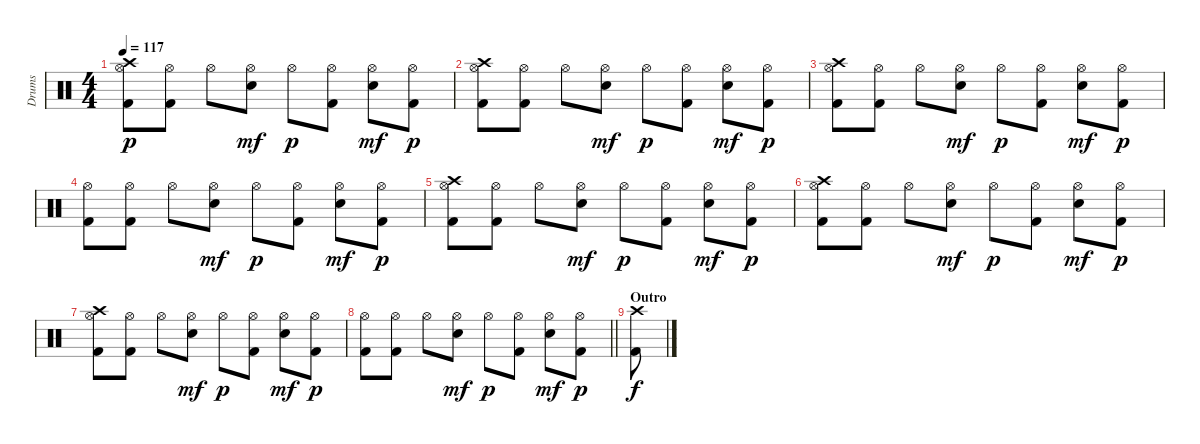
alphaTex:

\track ("Drums" "Drums") {instrument percussion}
\staff {score}
\articulation defaults
\ts (4 4)
\tempo 117
\clef neutral
\ks c
("Crash high (hit)" "Hi-Hat (open)" "Kick (hit) 2").8{dy p} ("Hi-Hat (open)" "Kick (hit) 2").8 "Hi-Hat (open)".8 ("Hi-Hat (open)" "Snare (hit) 2").8{dy mf} "Hi-Hat (open)".8{dy p} ("Hi-Hat (open)" "Kick (hit) 2").8 ("Hi-Hat (open)" "Snare (hit) 2").8{dy mf} ("Hi-Hat (open)" "Kick (hit) 2").8{dy p} |
("Crash high (hit)" "Hi-Hat (open)" "Kick (hit) 2").8 ("Hi-Hat (open)" "Kick (hit) 2").8 "Hi-Hat (open)".8 ("Hi-Hat (open)" "Snare (hit) 2").8{dy mf} "Hi-Hat (open)".8{dy p} ("Hi-Hat (open)" "Kick (hit) 2").8 ("Hi-Hat (open)" "Snare (hit) 2").8{dy mf} ("Hi-Hat (open)" "Kick (hit) 2").8{dy p} |
("Crash high (hit)" "Hi-Hat (open)" "Kick (hit) 2").8 ("Hi-Hat (open)" "Kick (hit) 2").8 "Hi-Hat (open)".8 ("Hi-Hat (open)" "Snare (hit) 2").8{dy mf} "Hi-Hat (open)".8{dy p} ("Hi-Hat (open)" "Kick (hit) 2").8 ("Hi-Hat (open)" "Snare (hit) 2").8{dy mf} ("Hi-Hat (open)" "Kick (hit) 2").8{dy p} |
("Hi-Hat (open)" "Kick (hit) 2").8 ("Hi-Hat (open)" "Kick (hit) 2").8 "Hi-Hat (open)".8 ("Hi-Hat (open)" "Snare (hit) 2").8{dy mf} "Hi-Hat (open)".8{dy p} ("Hi-Hat (open)" "Kick (hit) 2").8 ("Hi-Hat (open)" "Snare (hit) 2").8{dy mf} ("Hi-Hat (open)" "Kick (hit) 2").8{dy p} |
("Crash high (hit)" "Hi-Hat (open)" "Kick (hit) 2").8 ("Hi-Hat (open)" "Kick (hit) 2").8 "Hi-Hat (open)".8 ("Hi-Hat (open)" "Snare (hit) 2").8{dy mf} "Hi-Hat (open)".8{dy p} ("Hi-Hat (open)" "Kick (hit) 2").8 ("Hi-Hat (open)" "Snare (hit) 2").8{dy mf} ("Hi-Hat (open)" "Kick (hit) 2").8{dy p} |
("Crash high (hit)" "Hi-Hat (open)" "Kick (hit) 2").8 ("Hi-Hat (open)" "Kick (hit) 2").8 "Hi-Hat (open)".8 ("Hi-Hat (open)" "Snare (hit) 2").8{dy mf} "Hi-Hat (open)".8{dy p} ("Hi-Hat (open)" "Kick (hit) 2").8 ("Hi-Hat (open)" "Snare (hit) 2").8{dy mf} ("Hi-Hat (open)" "Kick (hit) 2").8{dy p} |
("Crash high (hit)" "Hi-Hat (open)" "Kick (hit) 2").8 ("Hi-Hat (open)" "Kick (hit) 2").8 "Hi-Hat (open)".8 ("Hi-Hat (open)" "Snare (hit) 2").8{dy mf} "Hi-Hat (open)".8{dy p} ("Hi-Hat (open)" "Kick (hit) 2").8 ("Hi-Hat (open)" "Snare (hit) 2").8{dy mf} ("Hi-Hat (open)" "Kick (hit) 2").8{dy p} |
\barLineRight lightlight
("Hi-Hat (open)" "Kick (hit) 2").8 ("Hi-Hat (open)" "Kick (hit) 2").8 "Hi-Hat (open)".8 ("Hi-Hat (open)" "Snare (hit) 2").8{dy mf} "Hi-Hat (open)".8{dy p} ("Hi-Hat (open)" "Kick (hit) 2").8 ("Hi-Hat (open)" "Snare (hit) 2").8{dy mf} ("Hi-Hat (open)" "Kick (hit) 2").8{dy p} |
\section ("" "Outro")
("Crash high (hit)" "Kick (hit) 2").8{dy f}
